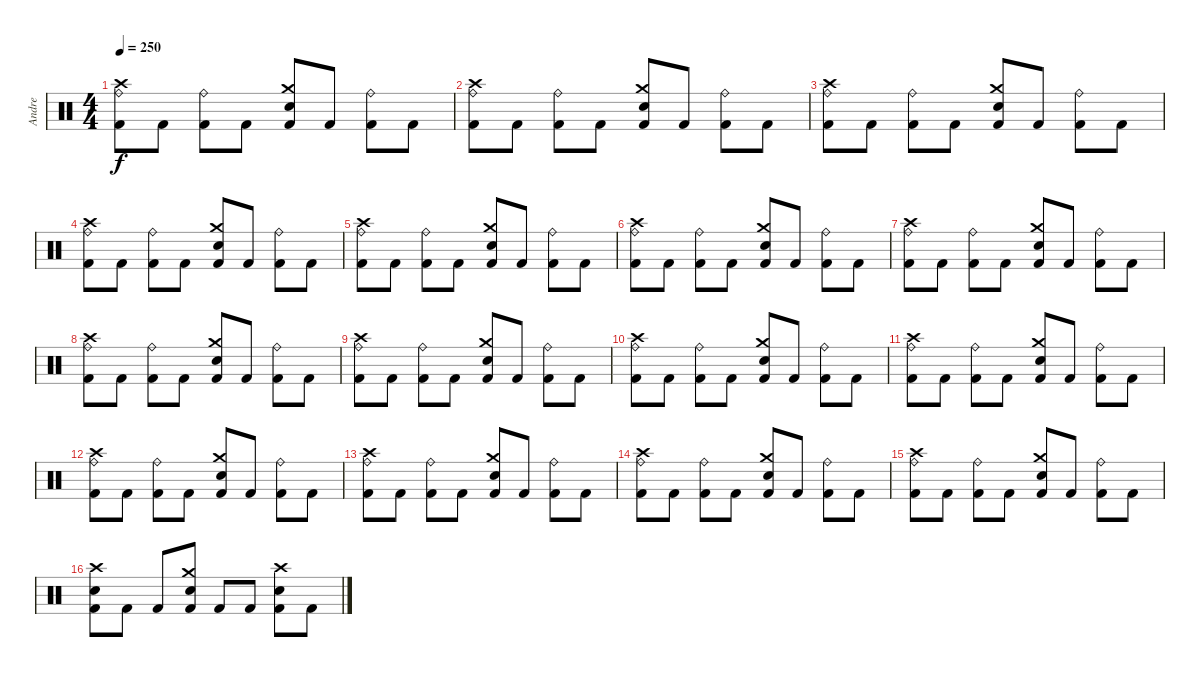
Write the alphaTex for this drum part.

\track ("Andre" "Andre") {instrument percussion}
\staff {score}
\articulation defaults
\ts (4 4)
\tempo 250
\clef neutral
\ks c
("Crash high (hit)" "Ride (bell)" "Kick (hit) 2").8{dy f} "Kick (hit) 2".8 ("Ride (bell)" "Kick (hit) 2").8 "Kick (hit) 2".8 ("Crash medium (hit)" "Snare (hit) 2" "Kick (hit) 2").8 "Kick (hit) 2".8 ("Ride (bell)" "Kick (hit) 2").8 "Kick (hit) 2".8 |
("Crash high (hit)" "Ride (bell)" "Kick (hit) 2").8 "Kick (hit) 2".8 ("Ride (bell)" "Kick (hit) 2").8 "Kick (hit) 2".8 ("Crash medium (hit)" "Snare (hit) 2" "Kick (hit) 2").8 "Kick (hit) 2".8 ("Ride (bell)" "Kick (hit) 2").8 "Kick (hit) 2".8 |
("Crash high (hit)" "Ride (bell)" "Kick (hit) 2").8 "Kick (hit) 2".8 ("Ride (bell)" "Kick (hit) 2").8 "Kick (hit) 2".8 ("Crash medium (hit)" "Snare (hit) 2" "Kick (hit) 2").8 "Kick (hit) 2".8 ("Ride (bell)" "Kick (hit) 2").8 "Kick (hit) 2".8 |
("Crash high (hit)" "Ride (bell)" "Kick (hit) 2").8 "Kick (hit) 2".8 ("Ride (bell)" "Kick (hit) 2").8 "Kick (hit) 2".8 ("Crash medium (hit)" "Snare (hit) 2" "Kick (hit) 2").8 "Kick (hit) 2".8 ("Ride (bell)" "Kick (hit) 2").8 "Kick (hit) 2".8 |
("Crash high (hit)" "Ride (bell)" "Kick (hit) 2").8 "Kick (hit) 2".8 ("Ride (bell)" "Kick (hit) 2").8 "Kick (hit) 2".8 ("Crash medium (hit)" "Snare (hit) 2" "Kick (hit) 2").8 "Kick (hit) 2".8 ("Ride (bell)" "Kick (hit) 2").8 "Kick (hit) 2".8 |
("Crash high (hit)" "Ride (bell)" "Kick (hit) 2").8 "Kick (hit) 2".8 ("Ride (bell)" "Kick (hit) 2").8 "Kick (hit) 2".8 ("Crash medium (hit)" "Snare (hit) 2" "Kick (hit) 2").8 "Kick (hit) 2".8 ("Ride (bell)" "Kick (hit) 2").8 "Kick (hit) 2".8 |
("Crash high (hit)" "Ride (bell)" "Kick (hit) 2").8 "Kick (hit) 2".8 ("Ride (bell)" "Kick (hit) 2").8 "Kick (hit) 2".8 ("Crash medium (hit)" "Snare (hit) 2" "Kick (hit) 2").8 "Kick (hit) 2".8 ("Ride (bell)" "Kick (hit) 2").8 "Kick (hit) 2".8 |
("Crash high (hit)" "Ride (bell)" "Kick (hit) 2").8 "Kick (hit) 2".8 ("Ride (bell)" "Kick (hit) 2").8 "Kick (hit) 2".8 ("Crash medium (hit)" "Snare (hit) 2" "Kick (hit) 2").8 "Kick (hit) 2".8 ("Ride (bell)" "Kick (hit) 2").8 "Kick (hit) 2".8 |
("Crash high (hit)" "Ride (bell)" "Kick (hit) 2").8 "Kick (hit) 2".8 ("Ride (bell)" "Kick (hit) 2").8 "Kick (hit) 2".8 ("Crash medium (hit)" "Snare (hit) 2" "Kick (hit) 2").8 "Kick (hit) 2".8 ("Ride (bell)" "Kick (hit) 2").8 "Kick (hit) 2".8 |
("Crash high (hit)" "Ride (bell)" "Kick (hit) 2").8 "Kick (hit) 2".8 ("Ride (bell)" "Kick (hit) 2").8 "Kick (hit) 2".8 ("Crash medium (hit)" "Snare (hit) 2" "Kick (hit) 2").8 "Kick (hit) 2".8 ("Ride (bell)" "Kick (hit) 2").8 "Kick (hit) 2".8 |
("Crash high (hit)" "Ride (bell)" "Kick (hit) 2").8 "Kick (hit) 2".8 ("Ride (bell)" "Kick (hit) 2").8 "Kick (hit) 2".8 ("Crash medium (hit)" "Snare (hit) 2" "Kick (hit) 2").8 "Kick (hit) 2".8 ("Ride (bell)" "Kick (hit) 2").8 "Kick (hit) 2".8 |
("Crash high (hit)" "Ride (bell)" "Kick (hit) 2").8 "Kick (hit) 2".8 ("Ride (bell)" "Kick (hit) 2").8 "Kick (hit) 2".8 ("Crash medium (hit)" "Snare (hit) 2" "Kick (hit) 2").8 "Kick (hit) 2".8 ("Ride (bell)" "Kick (hit) 2").8 "Kick (hit) 2".8 |
("Crash high (hit)" "Ride (bell)" "Kick (hit) 2").8 "Kick (hit) 2".8 ("Ride (bell)" "Kick (hit) 2").8 "Kick (hit) 2".8 ("Crash medium (hit)" "Snare (hit) 2" "Kick (hit) 2").8 "Kick (hit) 2".8 ("Ride (bell)" "Kick (hit) 2").8 "Kick (hit) 2".8 |
("Crash high (hit)" "Ride (bell)" "Kick (hit) 2").8 "Kick (hit) 2".8 ("Ride (bell)" "Kick (hit) 2").8 "Kick (hit) 2".8 ("Crash medium (hit)" "Snare (hit) 2" "Kick (hit) 2").8 "Kick (hit) 2".8 ("Ride (bell)" "Kick (hit) 2").8 "Kick (hit) 2".8 |
("Crash high (hit)" "Ride (bell)" "Kick (hit) 2").8 "Kick (hit) 2".8 ("Ride (bell)" "Kick (hit) 2").8 "Kick (hit) 2".8 ("Crash medium (hit)" "Snare (hit) 2" "Kick (hit) 2").8 "Kick (hit) 2".8 ("Ride (bell)" "Kick (hit) 2").8 "Kick (hit) 2".8 |
("Crash high (hit)" "Snare (hit) 2" "Kick (hit) 2").8 "Kick (hit) 2".8 "Kick (hit) 2".8 ("Crash medium (hit)" "Snare (hit) 2" "Kick (hit) 2").8 "Kick (hit) 2".8 "Kick (hit) 2".8 ("Crash high (hit)" "Snare (hit) 2" "Kick (hit) 2").8 "Kick (hit) 2".8
